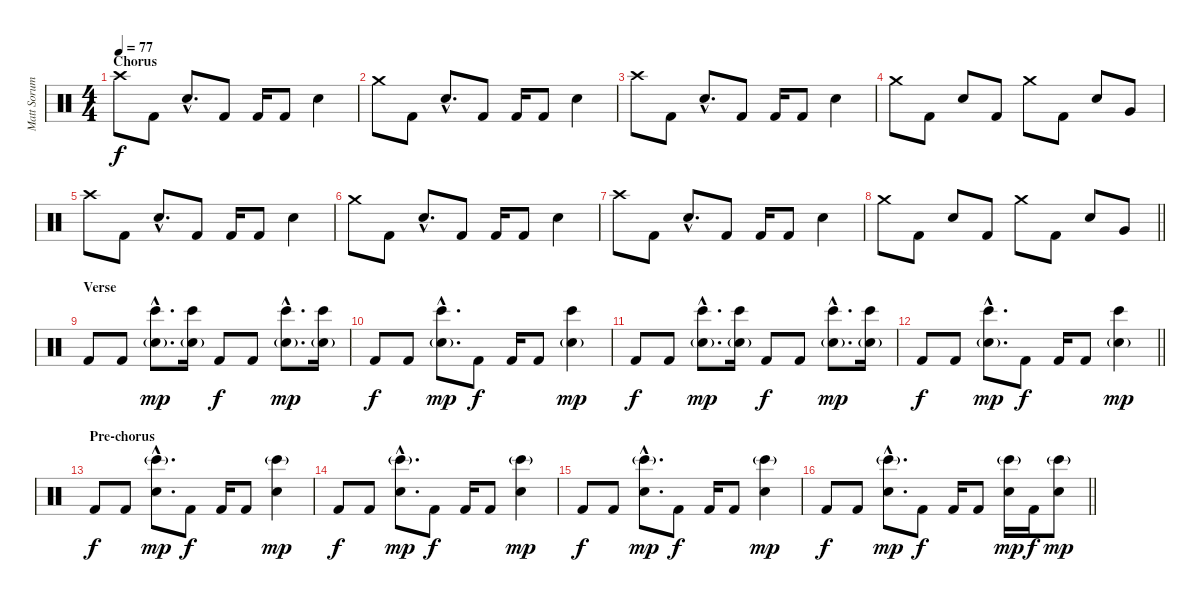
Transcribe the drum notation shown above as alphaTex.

\track ("Matt Sorum (Drums)" "Matt Sorum") {instrument percussion}
\staff {score}
\articulation defaults
\ts (4 4)
\section ("" "Chorus")
\tempo 77
\clef neutral
\ks c "Crash high (hit)".8{dy f} "Kick (hit) 2".8 "Electric Snare (hit)"{hac}.8{d} "Kick (hit) 2".8 "Kick (hit) 2".16 "Kick (hit) 2".8 "Electric Snare (hit)".4
|
"Crash medium (hit)".8 "Kick (hit) 2".8 "Electric Snare (hit)"{hac}.8{d} "Kick (hit) 2".8 "Kick (hit) 2".16 "Kick (hit) 2".8 "Electric Snare (hit)".4 |
"Crash high (hit)".8 "Kick (hit) 2".8 "Electric Snare (hit)"{hac}.8{d} "Kick (hit) 2".8 "Kick (hit) 2".16 "Kick (hit) 2".8 "Electric Snare (hit)".4 |
"Crash medium (hit)".8 "Kick (hit) 2".8 "Electric Snare (hit)".8 "Kick (hit) 2".8 "Crash medium (hit)".8 "Kick (hit) 2".8 "Electric Snare (hit)".8 "Very Low Tom (hit)".8 |
"Crash high (hit)".8 "Kick (hit) 2".8 "Electric Snare (hit)"{hac}.8{d} "Kick (hit) 2".8 "Kick (hit) 2".16 "Kick (hit) 2".8 "Electric Snare (hit)".4 |
"Crash medium (hit)".8 "Kick (hit) 2".8 "Electric Snare (hit)"{hac}.8{d} "Kick (hit) 2".8 "Kick (hit) 2".16 "Kick (hit) 2".8 "Electric Snare (hit)".4 |
"Crash high (hit)".8 "Kick (hit) 2".8 "Electric Snare (hit)"{hac}.8{d} "Kick (hit) 2".8 "Kick (hit) 2".16 "Kick (hit) 2".8 "Electric Snare (hit)".4 |
\barLineRight lightlight "Crash medium (hit)".8 "Kick (hit) 2".8 "Electric Snare (hit)".8 "Kick (hit) 2".8 "Crash medium (hit)".8 "Kick (hit) 2".8 "Electric Snare (hit)".8 "Very Low Tom (hit)".8
|
\section ("" "Verse")
"Kick (hit) 2".8 "Kick (hit) 2".8 ("Bongo High (hit)"{hac} "Electric Snare (hit)"{g hac}).8{d dy mp} ("Bongo High (hit)" "Electric Snare (hit)"{g}).16 "Kick (hit) 2".8{dy f} "Kick (hit) 2".8 ("Bongo High (hit)"{hac} "Electric Snare (hit)"{g hac}).8{d dy mp} ("Bongo High (hit)" "Electric Snare (hit)"{g}).16 |
"Kick (hit) 2".8{dy f} "Kick (hit) 2".8 ("Bongo High (hit)"{hac} "Electric Snare (hit)"{g hac}).8{d dy mp} "Kick (hit) 2".8{dy f} "Kick (hit) 2".16 "Kick (hit) 2".8 ("Bongo High (hit)" "Electric Snare (hit)"{g}).4{dy mp} |
"Kick (hit) 2".8{dy f} "Kick (hit) 2".8 ("Bongo High (hit)"{hac} "Electric Snare (hit)"{g hac}).8{d dy mp} ("Bongo High (hit)" "Electric Snare (hit)"{g}).16 "Kick (hit) 2".8{dy f} "Kick (hit) 2".8 ("Bongo High (hit)"{hac} "Electric Snare (hit)"{g hac}).8{d dy mp} ("Bongo High (hit)" "Electric Snare (hit)"{g}).16 |
\barLineRight lightlight "Kick (hit) 2".8{dy f} "Kick (hit) 2".8
("Bongo High (hit)"{hac} "Electric Snare (hit)"{g hac}).8{d dy mp} "Kick (hit) 2".8{dy f} "Kick (hit) 2".16 "Kick (hit) 2".8 ("Bongo High (hit)" "Electric Snare (hit)"{g}).4{dy mp} |
\section ("" "Pre-chorus")
"Kick (hit) 2".8{dy f} "Kick (hit) 2".8 ("Bongo High (hit)"{g hac} "Electric Snare (hit)"{hac}).8{d dy mp} "Kick (hit) 2".8{dy f} "Kick (hit) 2".16 "Kick (hit) 2".8 ("Bongo High (hit)"{g} "Electric Snare (hit)").4{dy mp} |
"Kick (hit) 2".8{dy f} "Kick (hit) 2".8 ("Bongo High (hit)"{g hac} "Electric Snare (hit)"{hac}).8{d dy mp} "Kick (hit) 2".8{dy f} "Kick (hit) 2".16 "Kick (hit) 2".8 ("Bongo High (hit)"{g} "Electric Snare (hit)").4{dy mp} |
"Kick (hit) 2".8{dy f} "Kick (hit) 2".8 ("Bongo High (hit)"{g hac} "Electric Snare (hit)"{hac}).8{d dy mp} "Kick (hit) 2".8{dy f} "Kick (hit) 2".16 "Kick (hit) 2".8 ("Bongo High (hit)"{g} "Electric Snare (hit)").4{dy mp} |
\barLineRight lightlight "Kick (hit) 2".8{dy f} "Kick (hit) 2".8
("Bongo High (hit)"{g hac} "Snare (hit) 2"{hac}).8{d dy mp} "Kick (hit) 2".8{dy f} "Kick (hit) 2".16 "Kick (hit) 2".8 ("Bongo High (hit)"{g} "Snare (hit) 2").16{dy mp} "Kick (hit) 2".16{dy f} ("Bongo High (hit)"{g} "Snare (hit) 2").8{dy mp}
